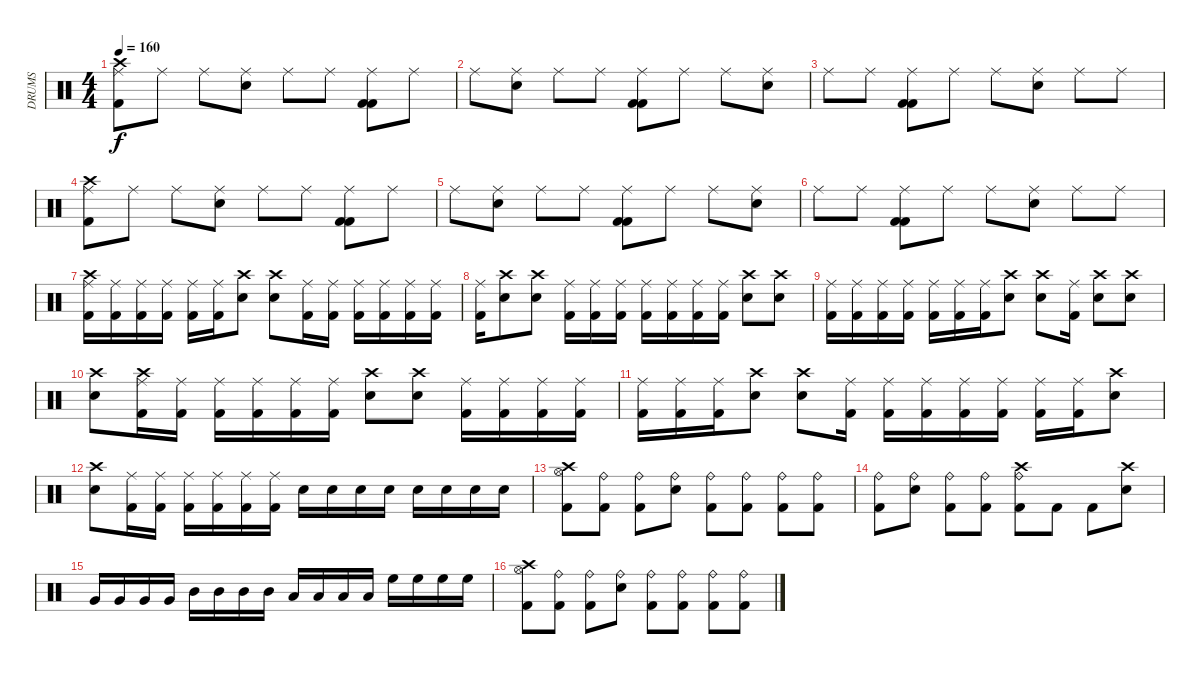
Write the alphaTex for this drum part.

\track ("DRUMS" "DRUMS") {instrument percussion}
\staff {score}
\articulation defaults
\ts (4 4)
\tempo 160
\clef neutral
\ks c
("Crash high (hit)" "Kick (hit) 2" "Ride (middle)").8{dy f} "Ride (middle)".8 "Ride (middle)".8 ("Snare (hit) 2" "Ride (middle)").8 "Ride (middle)".8 "Ride (middle)".8 ("Kick (hit) 2" "Kick (hit) 2" "Ride (middle)").8 "Ride (middle)".8 |
"Ride (middle)".8 ("Snare (hit) 2" "Ride (middle)").8 "Ride (middle)".8 "Ride (middle)".8 ("Kick (hit) 2" "Kick (hit) 2" "Ride (middle)").8 "Ride (middle)".8 "Ride (middle)".8 ("Snare (hit) 2" "Ride (middle)").8 |
"Ride (middle)".8 "Ride (middle)".8 ("Kick (hit) 2" "Kick (hit) 2" "Ride (middle)").8 "Ride (middle)".8 "Ride (middle)".8 ("Snare (hit) 2" "Ride (middle)").8 "Ride (middle)".8 "Ride (middle)".8 |
("Crash high (hit)" "Kick (hit) 2" "Ride (middle)").8 "Ride (middle)".8 "Ride (middle)".8 ("Snare (hit) 2" "Ride (middle)").8 "Ride (middle)".8 "Ride (middle)".8 ("Kick (hit) 2" "Kick (hit) 2" "Ride (middle)").8 "Ride (middle)".8 |
"Ride (middle)".8 ("Snare (hit) 2" "Ride (middle)").8 "Ride (middle)".8 "Ride (middle)".8 ("Kick (hit) 2" "Kick (hit) 2" "Ride (middle)").8 "Ride (middle)".8 "Ride (middle)".8 ("Snare (hit) 2" "Ride (middle)").8 |
"Ride (middle)".8 "Ride (middle)".8 ("Kick (hit) 2" "Kick (hit) 2" "Ride (middle)").8 "Ride (middle)".8 "Ride (middle)".8 ("Snare (hit) 2" "Ride (middle)").8 "Ride (middle)".8 "Ride (middle)".8 |
("Crash high (hit)" "Ride (middle)" "Kick (hit) 2").16 ("Ride (middle)" "Kick (hit) 2").16 ("Ride (middle)" "Kick (hit) 2").16 ("Ride (middle)" "Kick (hit) 2").16 ("Ride (middle)" "Kick (hit) 2").16 ("Ride (middle)" "Kick (hit) 2").16 ("Crash high (hit)" "Snare (hit) 2").8 ("Crash high (hit)" "Snare (hit) 2").8 ("Ride (middle)" "Kick (hit) 2").16 ("Ride (middle)" "Kick (hit) 2").16 ("Ride (middle)" "Kick (hit) 2").16 ("Ride (middle)" "Kick (hit) 2").16 ("Ride (middle)" "Kick (hit) 2").16 ("Ride (middle)" "Kick (hit) 2").16 |
("Ride (middle)" "Kick (hit) 2").16 ("Crash high (hit)" "Snare (hit) 2").8 ("Crash high (hit)" "Snare (hit) 2").8 ("Ride (middle)" "Kick (hit) 2").16 ("Ride (middle)" "Kick (hit) 2").16 ("Ride (middle)" "Kick (hit) 2").16 ("Ride (middle)" "Kick (hit) 2").16 ("Ride (middle)" "Kick (hit) 2").16 ("Ride (middle)" "Kick (hit) 2").16 ("Ride (middle)" "Kick (hit) 2").16 ("Crash high (hit)" "Snare (hit) 2").8 ("Crash high (hit)" "Snare (hit) 2").8 |
("Ride (middle)" "Kick (hit) 2").16 ("Ride (middle)" "Kick (hit) 2").16 ("Ride (middle)" "Kick (hit) 2").16 ("Ride (middle)" "Kick (hit) 2").16 ("Ride (middle)" "Kick (hit) 2").16 ("Ride (middle)" "Kick (hit) 2").16 ("Ride (middle)" "Kick (hit) 2").16 ("Crash high (hit)" "Snare (hit) 2").8 ("Crash high (hit)" "Snare (hit) 2").8 ("Ride (middle)" "Kick (hit) 2").16 ("Crash high (hit)" "Snare (hit) 2").8 ("Crash high (hit)" "Snare (hit) 2").8 |
("Crash high (hit)" "Snare (hit) 2").8 ("Crash high (hit)" "Ride (middle)" "Kick (hit) 2").16 ("Ride (middle)" "Kick (hit) 2").16 ("Ride (middle)" "Kick (hit) 2").16 ("Ride (middle)" "Kick (hit) 2").16 ("Ride (middle)" "Kick (hit) 2").16 ("Ride (middle)" "Kick (hit) 2").16 ("Crash high (hit)" "Snare (hit) 2").8 ("Crash high (hit)" "Snare (hit) 2").8 ("Ride (middle)" "Kick (hit) 2").16 ("Ride (middle)" "Kick (hit) 2").16 ("Ride (middle)" "Kick (hit) 2").16 ("Ride (middle)" "Kick (hit) 2").16 |
("Ride (middle)" "Kick (hit) 2").16 ("Ride (middle)" "Kick (hit) 2").16 ("Ride (middle)" "Kick (hit) 2").16 ("Crash high (hit)" "Snare (hit) 2").8 ("Crash high (hit)" "Snare (hit) 2").8 ("Ride (middle)" "Kick (hit) 2").16 ("Ride (middle)" "Kick (hit) 2").16 ("Ride (middle)" "Kick (hit) 2").16 ("Ride (middle)" "Kick (hit) 2").16 ("Ride (middle)" "Kick (hit) 2").16 ("Ride (middle)" "Kick (hit) 2").16 ("Ride (middle)" "Kick (hit) 2").16 ("Crash high (hit)" "Snare (hit) 2").8 |
("Crash high (hit)" "Snare (hit) 2").8 ("Ride (middle)" "Kick (hit) 2").16 ("Ride (middle)" "Kick (hit) 2").16 ("Ride (middle)" "Kick (hit) 2").16 ("Ride (middle)" "Kick (hit) 2").16 ("Ride (middle)" "Kick (hit) 2").16 ("Ride (middle)" "Kick (hit) 2").16 "Snare (hit) 2".16 "Snare (hit) 2".16 "Snare (hit) 2".16 "Snare (hit) 2".16 "Snare (hit) 2".16 "Snare (hit) 2".16 "Snare (hit) 2".16 "Snare (hit) 2".16 |
("Crash high (hit)" "Kick (hit) 2" "Hi-Hat (open)").8 ("Ride (bell)" "Kick (hit) 2").8 ("Ride (bell)" "Kick (hit) 2").8 ("Ride (bell)" "Snare (hit) 2").8 ("Ride (bell)" "Kick (hit) 2").8 ("Ride (bell)" "Kick (hit) 2").8 ("Ride (bell)" "Kick (hit) 2").8 ("Ride (bell)" "Kick (hit) 2").8 |
("Ride (bell)" "Kick (hit) 2").8 ("Ride (bell)" "Snare (hit) 2").8 ("Ride (bell)" "Kick (hit) 2").8 ("Ride (bell)" "Kick (hit) 2").8 ("Crash high (hit)" "Ride (bell)" "Kick (hit) 2").8 "Kick (hit) 2".8 "Kick (hit) 2".8 ("Crash high (hit)" "Snare (hit) 2").8 |
"Very Low Tom (hit)".16 "Very Low Tom (hit)".16 "Very Low Tom (hit)".16 "Very Low Tom (hit)".16 "Mid Tom (hit)".16 "Mid Tom (hit)".16 "Mid Tom (hit)".16 "Mid Tom (hit)".16 "Low Tom (hit)".16 "Low Tom (hit)".16 "Low Tom (hit)".16 "Low Tom (hit)".16 "High Floor Tom (hit)".16 "High Floor Tom (hit)".16 "High Floor Tom (hit)".16 "High Floor Tom (hit)".16 |
("Crash high (hit)" "Kick (hit) 2" "Hi-Hat (open)").8 ("Ride (bell)" "Kick (hit) 2").8 ("Ride (bell)" "Kick (hit) 2").8 ("Ride (bell)" "Snare (hit) 2").8 ("Ride (bell)" "Kick (hit) 2").8 ("Ride (bell)" "Kick (hit) 2").8 ("Ride (bell)" "Kick (hit) 2").8 ("Ride (bell)" "Kick (hit) 2").8
